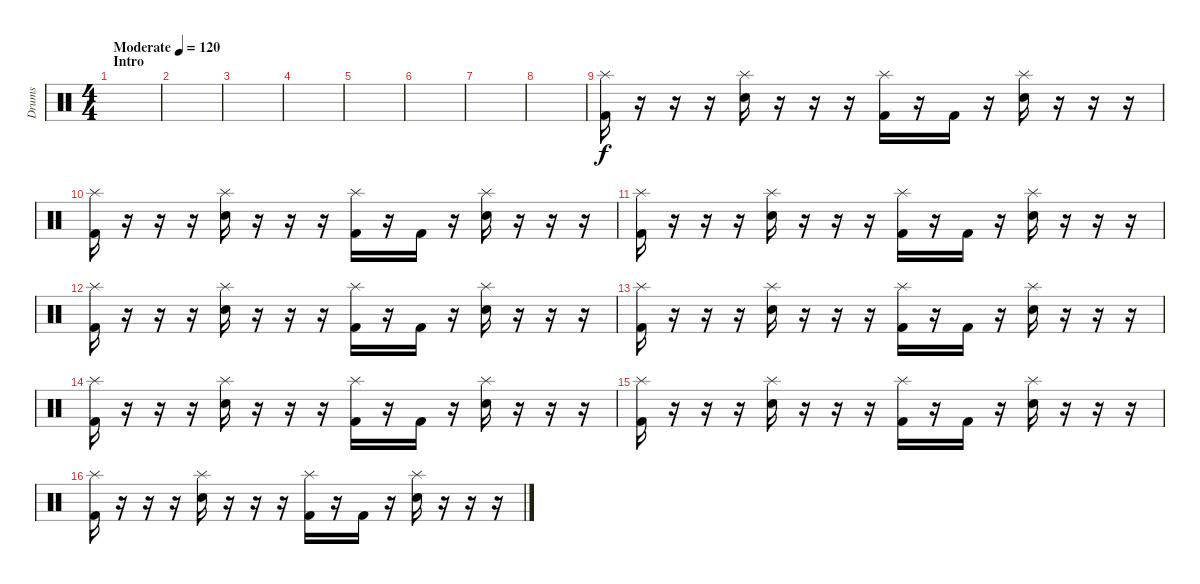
\track ("Drums" "Drums") {instrument percussion}
\staff {score}
\articulation defaults
\ts (4 4)
\section ("" "Intro")
\tempo (120 "Moderate")
\tempo 144
\tempo (120 "Moderate")
\clef neutral
\ks c
|
|
|
|
|
|
|
|
("Kick (hit) 2" "Splash (hit)").16{volume 11} r.16 r.16 r.16 ("Splash (hit)" "Snare (hit) 2").16 r.16 r.16 r.16 ("Kick (hit) 2" "Splash (hit)").16 r.16 "Kick (hit) 2".16 r.16 ("Splash (hit)" "Snare (hit) 2").16 r.16 r.16 r.16 |
("Kick (hit) 2" "Splash (hit)").16 r.16 r.16 r.16 ("Splash (hit)" "Snare (hit) 2").16 r.16 r.16 r.16 ("Kick (hit) 2" "Splash (hit)").16 r.16 "Kick (hit) 2".16 r.16 ("Splash (hit)" "Snare (hit) 2").16 r.16 r.16 r.16 |
("Kick (hit) 2" "Splash (hit)").16 r.16 r.16 r.16 ("Splash (hit)" "Snare (hit) 2").16 r.16 r.16 r.16 ("Kick (hit) 2" "Splash (hit)").16 r.16 "Kick (hit) 2".16 r.16 ("Splash (hit)" "Snare (hit) 2").16 r.16 r.16 r.16 |
("Kick (hit) 2" "Splash (hit)").16 r.16 r.16 r.16 ("Splash (hit)" "Snare (hit) 2").16 r.16 r.16 r.16 ("Kick (hit) 2" "Splash (hit)").16 r.16 "Kick (hit) 2".16 r.16 ("Splash (hit)" "Snare (hit) 2").16 r.16 r.16 r.16 |
("Kick (hit) 2" "Splash (hit)").16 r.16 r.16 r.16 ("Splash (hit)" "Snare (hit) 2").16 r.16 r.16 r.16 ("Kick (hit) 2" "Splash (hit)").16 r.16 "Kick (hit) 2".16 r.16 ("Splash (hit)" "Snare (hit) 2").16 r.16 r.16 r.16 |
("Kick (hit) 2" "Splash (hit)").16 r.16 r.16 r.16 ("Splash (hit)" "Snare (hit) 2").16 r.16 r.16 r.16 ("Kick (hit) 2" "Splash (hit)").16 r.16 "Kick (hit) 2".16 r.16 ("Splash (hit)" "Snare (hit) 2").16 r.16 r.16 r.16 |
("Kick (hit) 2" "Splash (hit)").16 r.16 r.16 r.16 ("Splash (hit)" "Snare (hit) 2").16 r.16 r.16 r.16 ("Kick (hit) 2" "Splash (hit)").16 r.16 "Kick (hit) 2".16 r.16 ("Splash (hit)" "Snare (hit) 2").16 r.16 r.16 r.16 |
("Kick (hit) 2" "Splash (hit)").16 r.16 r.16 r.16 ("Splash (hit)" "Snare (hit) 2").16 r.16 r.16 r.16 ("Kick (hit) 2" "Splash (hit)").16 r.16 "Kick (hit) 2".16 r.16 ("Splash (hit)" "Snare (hit) 2").16 r.16 r.16 r.16
